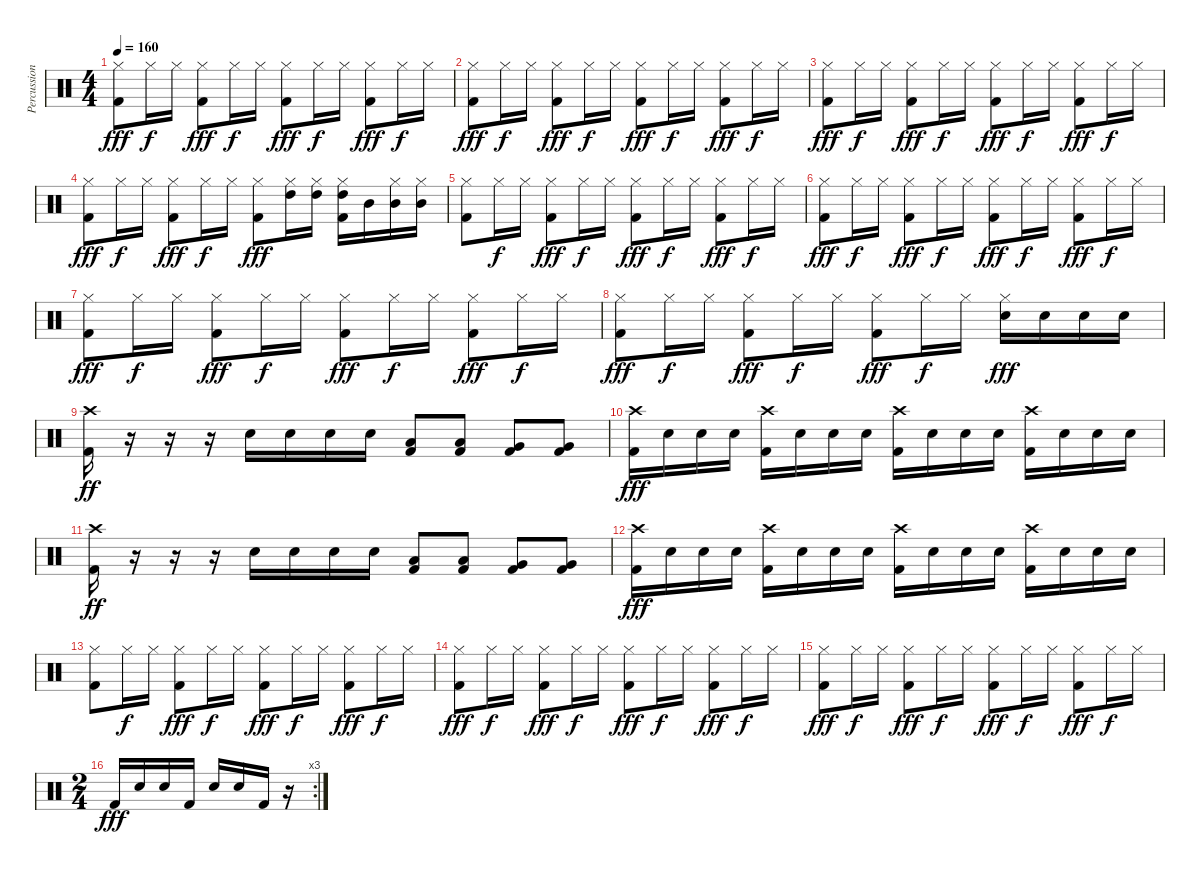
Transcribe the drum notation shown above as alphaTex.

\track ("Percussions" "Percussion") {instrument percussion}
\staff {score}
\articulation defaults
\ts (4 4)
\tempo 160
\clef neutral
\ks c
("Hi-Hat (closed)" "Kick (hit) 2").8{dy fff} "Hi-Hat (closed)".16{dy f} "Hi-Hat (closed)".16 ("Hi-Hat (closed)" "Kick (hit) 2").8{dy fff} "Hi-Hat (closed)".16{dy f} "Hi-Hat (closed)".16 ("Hi-Hat (closed)" "Kick (hit) 2").8{dy fff} "Hi-Hat (closed)".16{dy f} "Hi-Hat (closed)".16 ("Hi-Hat (closed)" "Kick (hit) 2").8{dy fff} "Hi-Hat (closed)".16{dy f} "Hi-Hat (closed)".16 |
("Hi-Hat (closed)" "Kick (hit) 2").8{dy fff} "Hi-Hat (closed)".16{dy f} "Hi-Hat (closed)".16 ("Hi-Hat (closed)" "Kick (hit) 2").8{dy fff} "Hi-Hat (closed)".16{dy f} "Hi-Hat (closed)".16 ("Hi-Hat (closed)" "Kick (hit) 2").8{dy fff} "Hi-Hat (closed)".16{dy f} "Hi-Hat (closed)".16 ("Hi-Hat (closed)" "Kick (hit) 2").8{dy fff} "Hi-Hat (closed)".16{dy f} "Hi-Hat (closed)".16 |
("Hi-Hat (closed)" "Kick (hit) 2").8{dy fff} "Hi-Hat (closed)".16{dy f} "Hi-Hat (closed)".16 ("Hi-Hat (closed)" "Kick (hit) 2").8{dy fff} "Hi-Hat (closed)".16{dy f} "Hi-Hat (closed)".16 ("Hi-Hat (closed)" "Kick (hit) 2").8{dy fff} "Hi-Hat (closed)".16{dy f} "Hi-Hat (closed)".16 ("Hi-Hat (closed)" "Kick (hit) 2").8{dy fff} "Hi-Hat (closed)".16{dy f} "Hi-Hat (closed)".16 |
("Hi-Hat (closed)" "Kick (hit) 2").8{dy fff} "Hi-Hat (closed)".16{dy f} "Hi-Hat (closed)".16 ("Hi-Hat (closed)" "Kick (hit) 2").8{dy fff} "Hi-Hat (closed)".16{dy f} "Hi-Hat (closed)".16 ("Hi-Hat (closed)" "Kick (hit) 2").8{dy fff} ("Hi-Hat (closed)" "High Tom (hit)").16 ("Hi-Hat (closed)" "High Tom (hit)").16 ("Hi-Hat (closed)" "High Tom (hit)" "Kick (hit) 2").16 "Mid Tom (hit)".16 ("Hi-Hat (closed)" "Mid Tom (hit)").16 ("Hi-Hat (closed)" "Mid Tom (hit)").16 |
("Hi-Hat (closed)" "Kick (hit) 2").8 "Hi-Hat (closed)".16{dy f} "Hi-Hat (closed)".16 ("Hi-Hat (closed)" "Kick (hit) 2").8{dy fff} "Hi-Hat (closed)".16{dy f} "Hi-Hat (closed)".16 ("Hi-Hat (closed)" "Kick (hit) 2").8{dy fff} "Hi-Hat (closed)".16{dy f} "Hi-Hat (closed)".16 ("Hi-Hat (closed)" "Kick (hit) 2").8{dy fff} "Hi-Hat (closed)".16{dy f} "Hi-Hat (closed)".16 |
("Hi-Hat (closed)" "Kick (hit) 2").8{dy fff} "Hi-Hat (closed)".16{dy f} "Hi-Hat (closed)".16 ("Hi-Hat (closed)" "Kick (hit) 2").8{dy fff} "Hi-Hat (closed)".16{dy f} "Hi-Hat (closed)".16 ("Hi-Hat (closed)" "Kick (hit) 2").8{dy fff} "Hi-Hat (closed)".16{dy f} "Hi-Hat (closed)".16 ("Hi-Hat (closed)" "Kick (hit) 2").8{dy fff} "Hi-Hat (closed)".16{dy f} "Hi-Hat (closed)".16 |
("Hi-Hat (closed)" "Kick (hit) 2").8{dy fff} "Hi-Hat (closed)".16{dy f} "Hi-Hat (closed)".16 ("Hi-Hat (closed)" "Kick (hit) 2").8{dy fff} "Hi-Hat (closed)".16{dy f} "Hi-Hat (closed)".16 ("Hi-Hat (closed)" "Kick (hit) 2").8{dy fff} "Hi-Hat (closed)".16{dy f} "Hi-Hat (closed)".16 ("Hi-Hat (closed)" "Kick (hit) 2").8{dy fff} "Hi-Hat (closed)".16{dy f} "Hi-Hat (closed)".16 |
("Hi-Hat (closed)" "Kick (hit) 2").8{dy fff} "Hi-Hat (closed)".16{dy f} "Hi-Hat (closed)".16 ("Hi-Hat (closed)" "Kick (hit) 2").8{dy fff} "Hi-Hat (closed)".16{dy f} "Hi-Hat (closed)".16 ("Hi-Hat (closed)" "Kick (hit) 2").8{dy fff} "Hi-Hat (closed)".16{dy f} "Hi-Hat (closed)".16 ("Hi-Hat (closed)" "Electric Snare (hit)").16{dy fff} "Electric Snare (hit)".16 "Electric Snare (hit)".16 "Electric Snare (hit)".16 |
("Crash high (hit)" "Kick (hit) 2").16{dy ff} r.16 r.16 r.16 "Snare (hit) 2".16 "Snare (hit) 2".16 "Snare (hit) 2".16 "Snare (hit) 2".16 ("Low Tom (hit)" "Kick (hit) 2").8 ("Low Tom (hit)" "Kick (hit) 2").8 ("Very Low Tom (hit)" "Kick (hit) 2").8 ("Very Low Tom (hit)" "Kick (hit) 2").8 |
("Crash high (hit)" "Kick (hit) 2").16{dy fff} "Electric Snare (hit)".16 "Electric Snare (hit)".16 "Electric Snare (hit)".16 ("Crash high (hit)" "Kick (hit) 2").16 "Electric Snare (hit)".16 "Electric Snare (hit)".16 "Electric Snare (hit)".16 ("Crash high (hit)" "Kick (hit) 2").16 "Electric Snare (hit)".16 "Electric Snare (hit)".16 "Electric Snare (hit)".16 ("Crash high (hit)" "Kick (hit) 2").16 "Electric Snare (hit)".16 "Electric Snare (hit)".16 "Electric Snare (hit)".16 |
("Crash high (hit)" "Kick (hit) 2").16{dy ff} r.16 r.16 r.16 "Snare (hit) 2".16 "Snare (hit) 2".16 "Snare (hit) 2".16 "Snare (hit) 2".16 ("Low Tom (hit)" "Kick (hit) 2").8 ("Low Tom (hit)" "Kick (hit) 2").8 ("Very Low Tom (hit)" "Kick (hit) 2").8 ("Very Low Tom (hit)" "Kick (hit) 2").8 |
("Crash high (hit)" "Kick (hit) 2").16{dy fff} "Electric Snare (hit)".16 "Electric Snare (hit)".16 "Electric Snare (hit)".16 ("Crash high (hit)" "Kick (hit) 2").16 "Electric Snare (hit)".16 "Electric Snare (hit)".16 "Electric Snare (hit)".16 ("Crash high (hit)" "Kick (hit) 2").16 "Electric Snare (hit)".16 "Electric Snare (hit)".16 "Electric Snare (hit)".16 ("Crash high (hit)" "Kick (hit) 2").16 "Electric Snare (hit)".16 "Electric Snare (hit)".16 "Electric Snare (hit)".16 |
("Hi-Hat (closed)" "Kick (hit) 2").8 "Hi-Hat (closed)".16{dy f} "Hi-Hat (closed)".16 ("Hi-Hat (closed)" "Kick (hit) 2").8{dy fff} "Hi-Hat (closed)".16{dy f} "Hi-Hat (closed)".16 ("Hi-Hat (closed)" "Kick (hit) 2").8{dy fff} "Hi-Hat (closed)".16{dy f} "Hi-Hat (closed)".16 ("Hi-Hat (closed)" "Kick (hit) 2").8{dy fff} "Hi-Hat (closed)".16{dy f} "Hi-Hat (closed)".16 |
("Hi-Hat (closed)" "Kick (hit) 2").8{dy fff} "Hi-Hat (closed)".16{dy f} "Hi-Hat (closed)".16 ("Hi-Hat (closed)" "Kick (hit) 2").8{dy fff} "Hi-Hat (closed)".16{dy f} "Hi-Hat (closed)".16 ("Hi-Hat (closed)" "Kick (hit) 2").8{dy fff} "Hi-Hat (closed)".16{dy f} "Hi-Hat (closed)".16 ("Hi-Hat (closed)" "Kick (hit) 2").8{dy fff} "Hi-Hat (closed)".16{dy f} "Hi-Hat (closed)".16 |
("Hi-Hat (closed)" "Kick (hit) 2").8{dy fff} "Hi-Hat (closed)".16{dy f} "Hi-Hat (closed)".16 ("Hi-Hat (closed)" "Kick (hit) 2").8{dy fff} "Hi-Hat (closed)".16{dy f} "Hi-Hat (closed)".16 ("Hi-Hat (closed)" "Kick (hit) 2").8{dy fff} "Hi-Hat (closed)".16{dy f} "Hi-Hat (closed)".16 ("Hi-Hat (closed)" "Kick (hit) 2").8{dy fff} "Hi-Hat (closed)".16{dy f} "Hi-Hat (closed)".16 |
\rc 3
\ts (2 4)
"Kick (hit) 2".16{dy fff} "Electric Snare (hit)".16 "Electric Snare (hit)".16 "Kick (hit) 2".16 "Electric Snare (hit)".16 "Electric Snare (hit)".16 "Kick (hit) 2".16 r.16
